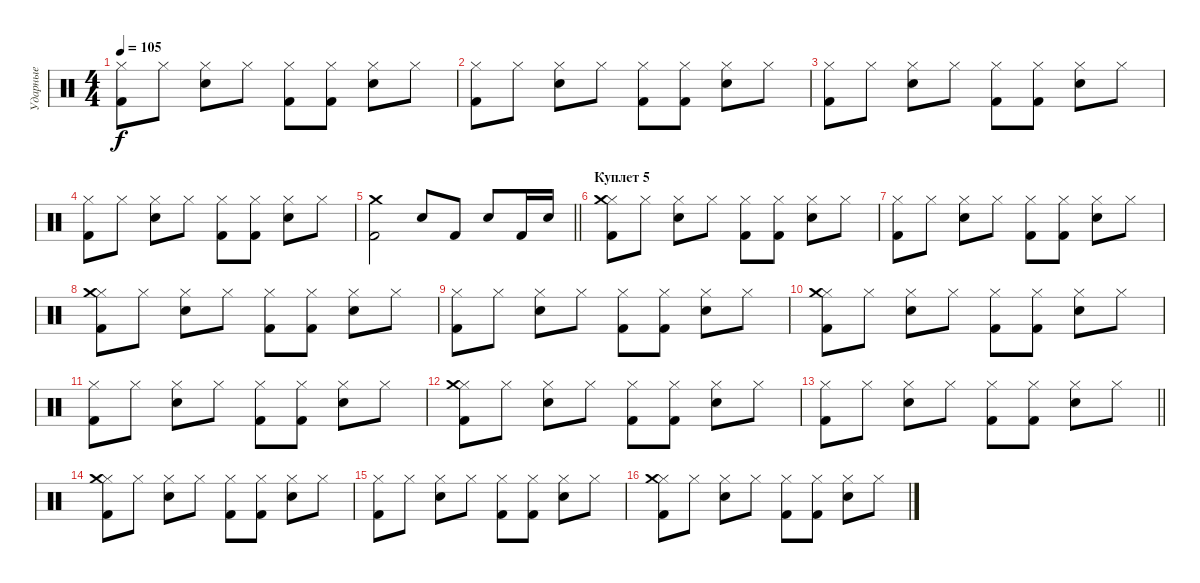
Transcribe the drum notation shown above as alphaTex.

\track ("Ударные" "Ударные") {instrument percussion}
\staff {score}
\articulation defaults
\ts (4 4)
\tempo 105
\clef neutral
\ks c
("Hi-Hat (closed)" "Kick (hit) 2").8{dy f} "Hi-Hat (closed)".8 ("Hi-Hat (closed)" "Electric Snare (hit)").8 "Hi-Hat (closed)".8 ("Hi-Hat (closed)" "Kick (hit) 2").8 ("Hi-Hat (closed)" "Kick (hit) 2").8 ("Hi-Hat (closed)" "Electric Snare (hit)").8 "Hi-Hat (closed)".8 |
("Hi-Hat (closed)" "Kick (hit) 2").8 "Hi-Hat (closed)".8 ("Hi-Hat (closed)" "Electric Snare (hit)").8 "Hi-Hat (closed)".8 ("Hi-Hat (closed)" "Kick (hit) 2").8 ("Hi-Hat (closed)" "Kick (hit) 2").8 ("Hi-Hat (closed)" "Electric Snare (hit)").8 "Hi-Hat (closed)".8 |
("Hi-Hat (closed)" "Kick (hit) 2").8 "Hi-Hat (closed)".8 ("Hi-Hat (closed)" "Electric Snare (hit)").8 "Hi-Hat (closed)".8 ("Hi-Hat (closed)" "Kick (hit) 2").8 ("Hi-Hat (closed)" "Kick (hit) 2").8 ("Hi-Hat (closed)" "Electric Snare (hit)").8 "Hi-Hat (closed)".8 |
("Hi-Hat (closed)" "Kick (hit) 2").8 "Hi-Hat (closed)".8 ("Hi-Hat (closed)" "Electric Snare (hit)").8 "Hi-Hat (closed)".8 ("Hi-Hat (closed)" "Kick (hit) 2").8 ("Hi-Hat (closed)" "Kick (hit) 2").8 ("Hi-Hat (closed)" "Electric Snare (hit)").8 "Hi-Hat (closed)".8 |
\barLineRight lightlight
("Kick (hit) 2" "Crash medium (hit)").2 "Electric Snare (hit)".8 "Kick (hit) 2".8 "Electric Snare (hit)".8 "Kick (hit) 2".16 "Electric Snare (hit)".16 |
\section ("" "Куплет 5")
("Hi-Hat (closed)" "Kick (hit) 2" "Crash medium (hit)").8 "Hi-Hat (closed)".8 ("Hi-Hat (closed)" "Electric Snare (hit)").8 "Hi-Hat (closed)".8 ("Hi-Hat (closed)" "Kick (hit) 2").8 ("Hi-Hat (closed)" "Kick (hit) 2").8 ("Hi-Hat (closed)" "Electric Snare (hit)").8 "Hi-Hat (closed)".8 |
("Hi-Hat (closed)" "Kick (hit) 2").8 "Hi-Hat (closed)".8 ("Hi-Hat (closed)" "Electric Snare (hit)").8 "Hi-Hat (closed)".8 ("Hi-Hat (closed)" "Kick (hit) 2").8 ("Hi-Hat (closed)" "Kick (hit) 2").8 ("Hi-Hat (closed)" "Electric Snare (hit)").8 "Hi-Hat (closed)".8 |
("Hi-Hat (closed)" "Kick (hit) 2" "Crash medium (hit)").8 "Hi-Hat (closed)".8 ("Hi-Hat (closed)" "Electric Snare (hit)").8 "Hi-Hat (closed)".8 ("Hi-Hat (closed)" "Kick (hit) 2").8 ("Hi-Hat (closed)" "Kick (hit) 2").8 ("Hi-Hat (closed)" "Electric Snare (hit)").8 "Hi-Hat (closed)".8 |
("Hi-Hat (closed)" "Kick (hit) 2").8 "Hi-Hat (closed)".8 ("Hi-Hat (closed)" "Electric Snare (hit)").8 "Hi-Hat (closed)".8 ("Hi-Hat (closed)" "Kick (hit) 2").8 ("Hi-Hat (closed)" "Kick (hit) 2").8 ("Hi-Hat (closed)" "Electric Snare (hit)").8 "Hi-Hat (closed)".8 |
("Hi-Hat (closed)" "Kick (hit) 2" "Crash medium (hit)").8 "Hi-Hat (closed)".8 ("Hi-Hat (closed)" "Electric Snare (hit)").8 "Hi-Hat (closed)".8 ("Hi-Hat (closed)" "Kick (hit) 2").8 ("Hi-Hat (closed)" "Kick (hit) 2").8 ("Hi-Hat (closed)" "Electric Snare (hit)").8 "Hi-Hat (closed)".8 |
("Hi-Hat (closed)" "Kick (hit) 2").8 "Hi-Hat (closed)".8 ("Hi-Hat (closed)" "Electric Snare (hit)").8 "Hi-Hat (closed)".8 ("Hi-Hat (closed)" "Kick (hit) 2").8 ("Hi-Hat (closed)" "Kick (hit) 2").8 ("Hi-Hat (closed)" "Electric Snare (hit)").8 "Hi-Hat (closed)".8 |
("Hi-Hat (closed)" "Kick (hit) 2" "Crash medium (hit)").8 "Hi-Hat (closed)".8 ("Hi-Hat (closed)" "Electric Snare (hit)").8 "Hi-Hat (closed)".8 ("Hi-Hat (closed)" "Kick (hit) 2").8 ("Hi-Hat (closed)" "Kick (hit) 2").8 ("Hi-Hat (closed)" "Electric Snare (hit)").8 "Hi-Hat (closed)".8 |
\barLineRight lightlight
("Hi-Hat (closed)" "Kick (hit) 2").8 "Hi-Hat (closed)".8 ("Hi-Hat (closed)" "Electric Snare (hit)").8 "Hi-Hat (closed)".8 ("Hi-Hat (closed)" "Kick (hit) 2").8 ("Hi-Hat (closed)" "Kick (hit) 2").8 ("Hi-Hat (closed)" "Electric Snare (hit)").8 "Hi-Hat (closed)".8 |
\section ("" "")
("Hi-Hat (closed)" "Kick (hit) 2" "Crash medium (hit)").8 "Hi-Hat (closed)".8 ("Hi-Hat (closed)" "Electric Snare (hit)").8 "Hi-Hat (closed)".8 ("Hi-Hat (closed)" "Kick (hit) 2").8 ("Hi-Hat (closed)" "Kick (hit) 2").8 ("Hi-Hat (closed)" "Electric Snare (hit)").8 "Hi-Hat (closed)".8 |
("Hi-Hat (closed)" "Kick (hit) 2").8 "Hi-Hat (closed)".8 ("Hi-Hat (closed)" "Electric Snare (hit)").8 "Hi-Hat (closed)".8 ("Hi-Hat (closed)" "Kick (hit) 2").8 ("Hi-Hat (closed)" "Kick (hit) 2").8 ("Hi-Hat (closed)" "Electric Snare (hit)").8 "Hi-Hat (closed)".8 |
("Hi-Hat (closed)" "Kick (hit) 2" "Crash medium (hit)").8 "Hi-Hat (closed)".8 ("Hi-Hat (closed)" "Electric Snare (hit)").8 "Hi-Hat (closed)".8 ("Hi-Hat (closed)" "Kick (hit) 2").8 ("Hi-Hat (closed)" "Kick (hit) 2").8 ("Hi-Hat (closed)" "Electric Snare (hit)").8 "Hi-Hat (closed)".8
